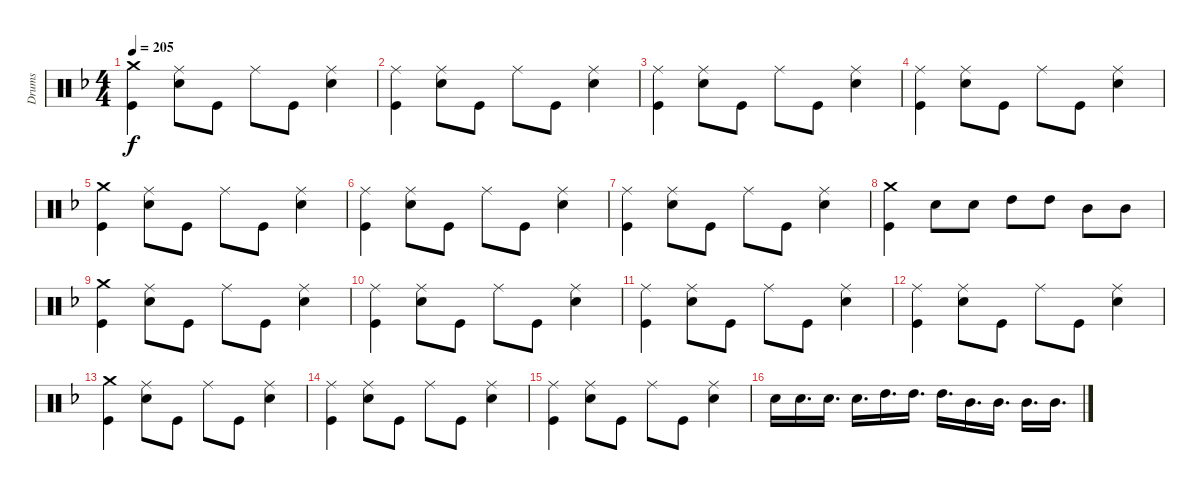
\track ("Drums" "Drums") {instrument percussion}
\staff {score}
\articulation defaults
\ts (4 4)
\tempo 205
\clef neutral
\ks f
("Crash medium (hit)" "Kick (hit)").4{dy f} ("Ride (middle)" "Electric Snare (hit)").8 "Kick (hit)".8 "Ride (middle)".8 "Kick (hit)".8 ("Ride (middle)" "Electric Snare (hit)").4 |
("Ride (middle)" "Kick (hit)").4 ("Ride (middle)" "Electric Snare (hit)").8 "Kick (hit)".8 "Ride (middle)".8 "Kick (hit)".8 ("Ride (middle)" "Electric Snare (hit)").4 |
("Ride (middle)" "Kick (hit)").4 ("Ride (middle)" "Electric Snare (hit)").8 "Kick (hit)".8 "Ride (middle)".8 "Kick (hit)".8 ("Ride (middle)" "Electric Snare (hit)").4 |
("Ride (middle)" "Kick (hit)").4 ("Ride (middle)" "Electric Snare (hit)").8 "Kick (hit)".8 "Ride (middle)".8 "Kick (hit)".8 ("Ride (middle)" "Electric Snare (hit)").4 |
("Crash medium (hit)" "Kick (hit)").4 ("Ride (middle)" "Electric Snare (hit)").8 "Kick (hit)".8 "Ride (middle)".8 "Kick (hit)".8 ("Ride (middle)" "Electric Snare (hit)").4 |
("Ride (middle)" "Kick (hit)").4 ("Ride (middle)" "Electric Snare (hit)").8 "Kick (hit)".8 "Ride (middle)".8 "Kick (hit)".8 ("Ride (middle)" "Electric Snare (hit)").4 |
("Ride (middle)" "Kick (hit)").4 ("Ride (middle)" "Electric Snare (hit)").8 "Kick (hit)".8 "Ride (middle)".8 "Kick (hit)".8 ("Ride (middle)" "Electric Snare (hit)").4 |
("Crash medium (hit)" "Kick (hit)").4 "Electric Snare (hit)".8 "Electric Snare (hit)".8 "High Tom (hit)".8 "High Tom (hit)".8 "Mid Tom (hit)".8 "Mid Tom (hit)".8 |
("Crash medium (hit)" "Kick (hit)").4 ("Ride (middle)" "Electric Snare (hit)").8 "Kick (hit)".8 "Ride (middle)".8 "Kick (hit)".8 ("Ride (middle)" "Electric Snare (hit)").4 |
("Ride (middle)" "Kick (hit)").4 ("Ride (middle)" "Electric Snare (hit)").8 "Kick (hit)".8 "Ride (middle)".8 "Kick (hit)".8 ("Ride (middle)" "Electric Snare (hit)").4 |
("Ride (middle)" "Kick (hit)").4 ("Ride (middle)" "Electric Snare (hit)").8 "Kick (hit)".8 "Ride (middle)".8 "Kick (hit)".8 ("Ride (middle)" "Electric Snare (hit)").4 |
("Ride (middle)" "Kick (hit)").4 ("Ride (middle)" "Electric Snare (hit)").8 "Kick (hit)".8 "Ride (middle)".8 "Kick (hit)".8 ("Ride (middle)" "Electric Snare (hit)").4 |
("Crash medium (hit)" "Kick (hit)").4 ("Ride (middle)" "Electric Snare (hit)").8 "Kick (hit)".8 "Ride (middle)".8 "Kick (hit)".8 ("Ride (middle)" "Electric Snare (hit)").4 |
("Ride (middle)" "Kick (hit)").4 ("Ride (middle)" "Electric Snare (hit)").8 "Kick (hit)".8 "Ride (middle)".8 "Kick (hit)".8 ("Ride (middle)" "Electric Snare (hit)").4 |
("Ride (middle)" "Kick (hit)").4 ("Ride (middle)" "Electric Snare (hit)").8 "Kick (hit)".8 "Ride (middle)".8 "Kick (hit)".8 ("Ride (middle)" "Electric Snare (hit)").4 |
"Electric Snare (hit)".16 "Electric Snare (hit)".16{d} "Electric Snare (hit)".16{d} "Electric Snare (hit)".16{d} "High Tom (hit)".16{d} "High Tom (hit)".16{d} "High Tom (hit)".16{d} "Mid Tom (hit)".16{d} "Mid Tom (hit)".16{d} "Mid Tom (hit)".16{d} "Mid Tom (hit)".16{d}
